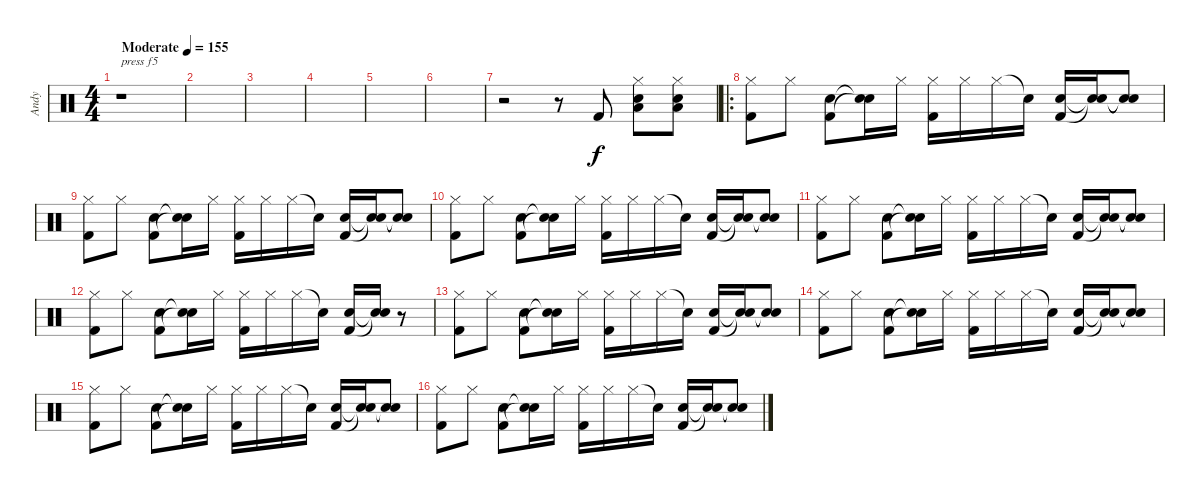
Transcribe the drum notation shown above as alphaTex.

\track ("Andy" "Andy") {instrument percussion}
\staff {score}
\articulation defaults
\ts (4 4)
\tempo (155 "Moderate")
\clef neutral
\ks c
r.1{txt "press f5" dy f} |
|
|
|
|
|
r.2 r.8 "Kick (hit) 2".8 ("Hi-Hat (closed)" "Low Tom (hit)" "Electric Snare (hit)").8 ("Hi-Hat (closed)" "Low Tom (hit)" "Electric Snare (hit)").8 |
\ro
("Hi-Hat (closed)" "Kick (hit) 2").8 "Hi-Hat (closed)".8 ("Electric Snare (hit)" "Kick (hit) 2").8 ("Snare (hit)"{t} "Snare (hit)"{t}).16 "Hi-Hat (closed)".16 ("Hi-Hat (closed)" "Kick (hit) 2").16 "Hi-Hat (closed)".16 "Hi-Hat (closed)".16 "Electric Snare (hit)"{t}.16 ("Electric Snare (hit)" "Kick (hit) 2").16 ("Snare (hit)"{t} "Snare (hit)"{t}).16 ("Snare (hit)"{t} "Snare (hit)"{t}).8 |
("Hi-Hat (closed)" "Kick (hit) 2").8 "Hi-Hat (closed)".8 ("Electric Snare (hit)" "Kick (hit) 2").8 ("Snare (hit)"{t} "Snare (hit)"{t}).16 "Hi-Hat (closed)".16 ("Hi-Hat (closed)" "Kick (hit) 2").16 "Hi-Hat (closed)".16 "Hi-Hat (closed)".16 "Electric Snare (hit)"{t}.16 ("Electric Snare (hit)" "Kick (hit) 2").16 ("Snare (hit)"{t} "Snare (hit)"{t}).16 ("Snare (hit)"{t} "Snare (hit)"{t}).8 |
("Hi-Hat (closed)" "Kick (hit) 2").8 "Hi-Hat (closed)".8 ("Electric Snare (hit)" "Kick (hit) 2").8 ("Snare (hit)"{t} "Snare (hit)"{t}).16 "Hi-Hat (closed)".16 ("Hi-Hat (closed)" "Kick (hit) 2").16 "Hi-Hat (closed)".16 "Hi-Hat (closed)".16 "Electric Snare (hit)"{t}.16 ("Electric Snare (hit)" "Kick (hit) 2").16 ("Snare (hit)"{t} "Snare (hit)"{t}).16 ("Snare (hit)"{t} "Snare (hit)"{t}).8 |
("Hi-Hat (closed)" "Kick (hit) 2").8 "Hi-Hat (closed)".8 ("Electric Snare (hit)" "Kick (hit) 2").8 ("Snare (hit)"{t} "Snare (hit)"{t}).16 "Hi-Hat (closed)".16 ("Hi-Hat (closed)" "Kick (hit) 2").16 "Hi-Hat (closed)".16 "Hi-Hat (closed)".16 "Electric Snare (hit)"{t}.16 ("Electric Snare (hit)" "Kick (hit) 2").16 ("Snare (hit)"{t} "Snare (hit)"{t}).16 ("Snare (hit)"{t} "Snare (hit)"{t}).8 |
("Hi-Hat (closed)" "Kick (hit) 2").8 "Hi-Hat (closed)".8 ("Electric Snare (hit)" "Kick (hit) 2").8 ("Snare (hit)"{t} "Snare (hit)"{t}).16 "Hi-Hat (closed)".16 ("Hi-Hat (closed)" "Kick (hit) 2").16 "Hi-Hat (closed)".16 "Hi-Hat (closed)".16 "Electric Snare (hit)"{t}.16 ("Electric Snare (hit)" "Kick (hit) 2").16 ("Snare (hit)"{t} "Snare (hit)"{t}).16 r.8 |
("Hi-Hat (closed)" "Kick (hit) 2").8 "Hi-Hat (closed)".8 ("Electric Snare (hit)" "Kick (hit) 2").8 ("Snare (hit)"{t} "Snare (hit)"{t}).16 "Hi-Hat (closed)".16 ("Hi-Hat (closed)" "Kick (hit) 2").16 "Hi-Hat (closed)".16 "Hi-Hat (closed)".16 "Electric Snare (hit)"{t}.16 ("Electric Snare (hit)" "Kick (hit) 2").16 ("Snare (hit)"{t} "Snare (hit)"{t}).16 ("Snare (hit)"{t} "Snare (hit)"{t}).8 |
("Hi-Hat (closed)" "Kick (hit) 2").8 "Hi-Hat (closed)".8 ("Electric Snare (hit)" "Kick (hit) 2").8 ("Snare (hit)"{t} "Snare (hit)"{t}).16 "Hi-Hat (closed)".16 ("Hi-Hat (closed)" "Kick (hit) 2").16 "Hi-Hat (closed)".16 "Hi-Hat (closed)".16 "Electric Snare (hit)"{t}.16 ("Electric Snare (hit)" "Kick (hit) 2").16 ("Snare (hit)"{t} "Snare (hit)"{t}).16 ("Snare (hit)"{t} "Snare (hit)"{t}).8 |
("Hi-Hat (closed)" "Kick (hit) 2").8 "Hi-Hat (closed)".8 ("Electric Snare (hit)" "Kick (hit) 2").8 ("Snare (hit)"{t} "Snare (hit)"{t}).16 "Hi-Hat (closed)".16 ("Hi-Hat (closed)" "Kick (hit) 2").16 "Hi-Hat (closed)".16 "Hi-Hat (closed)".16 "Electric Snare (hit)"{t}.16 ("Electric Snare (hit)" "Kick (hit) 2").16 ("Snare (hit)"{t} "Snare (hit)"{t}).16 ("Snare (hit)"{t} "Snare (hit)"{t}).8 |
("Hi-Hat (closed)" "Kick (hit) 2").8 "Hi-Hat (closed)".8 ("Electric Snare (hit)" "Kick (hit) 2").8 ("Snare (hit)"{t} "Snare (hit)"{t}).16 "Hi-Hat (closed)".16 ("Hi-Hat (closed)" "Kick (hit) 2").16 "Hi-Hat (closed)".16 "Hi-Hat (closed)".16 "Electric Snare (hit)"{t}.16 ("Electric Snare (hit)" "Kick (hit) 2").16 ("Snare (hit)"{t} "Snare (hit)"{t}).16 ("Snare (hit)"{t} "Snare (hit)"{t}).8
